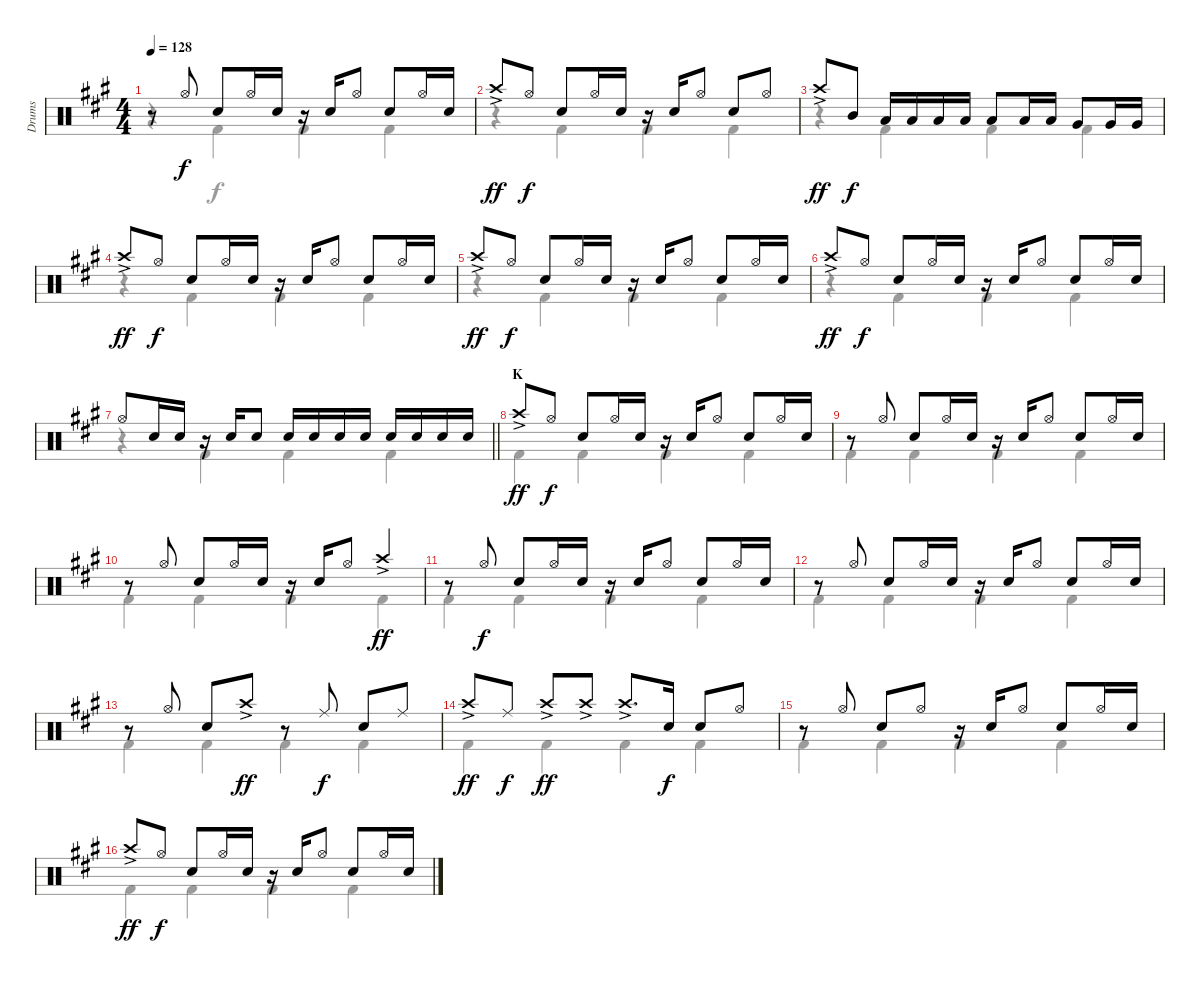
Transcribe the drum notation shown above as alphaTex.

\track ("Drums" "Drums") {instrument percussion}
\staff {score}
\articulation defaults
\voice
\ts (4 4)
\tempo 128
\clef neutral
\ks a
r.8{dy f} "Hi-Hat (open)".8 "Snare (hit) 2".8 "Hi-Hat (open)".16 "Snare (hit) 2".16 r.16 "Snare (hit) 2".16 "Hi-Hat (open)".8 "Snare (hit) 2".8 "Hi-Hat (open)".16 "Snare (hit) 2".16 |
"Crash high (hit)"{ac}.8{dy ff} "Hi-Hat (open)".8{dy f} "Snare (hit) 2".8 "Hi-Hat (open)".16 "Snare (hit) 2".16 r.16 "Snare (hit) 2".16 "Hi-Hat (open)".8 "Snare (hit) 2".8 "Hi-Hat (open)".8 |
"Crash high (hit)"{ac}.8{dy ff} "Mid Tom (hit)".8{dy f} "Low Tom (hit)".16 "Low Tom (hit)".16 "Low Tom (hit)".16 "Low Tom (hit)".16 "Low Tom (hit)".8 "Low Tom (hit)".16 "Low Tom (hit)".16 "Very Low Tom (hit)".8 "Very Low Tom (hit)".16 "Very Low Tom (hit)".16 |
"Crash high (hit)"{ac}.8{dy ff} "Hi-Hat (open)".8{dy f} "Snare (hit) 2".8 "Hi-Hat (open)".16 "Snare (hit) 2".16 r.16 "Snare (hit) 2".16 "Hi-Hat (open)".8 "Snare (hit) 2".8 "Hi-Hat (open)".16 "Snare (hit) 2".16 |
"Crash high (hit)"{ac}.8{dy ff} "Hi-Hat (open)".8{dy f} "Snare (hit) 2".8 "Hi-Hat (open)".16 "Snare (hit) 2".16 r.16 "Snare (hit) 2".16 "Hi-Hat (open)".8 "Snare (hit) 2".8 "Hi-Hat (open)".16 "Snare (hit) 2".16 |
"Crash high (hit)"{ac}.8{dy ff} "Hi-Hat (open)".8{dy f} "Snare (hit) 2".8 "Hi-Hat (open)".16 "Snare (hit) 2".16 r.16 "Snare (hit) 2".16 "Hi-Hat (open)".8 "Snare (hit) 2".8 "Hi-Hat (open)".16 "Snare (hit) 2".16 |
\barLineRight lightlight "Hi-Hat (open)".8 "Snare (hit) 2".16 "Snare (hit) 2".16
r.16 "Snare (hit) 2".16 "Snare (hit) 2".8 "Snare (hit) 2".16 "Snare (hit) 2".16 "Snare (hit) 2".16 "Snare (hit) 2".16 "Snare (hit) 2".16 "Snare (hit) 2".16 "Snare (hit) 2".16 "Snare (hit) 2".16 |
\section ("" "K")
"Crash high (hit)"{ac}.8{dy ff} "Hi-Hat (open)".8{dy f} "Snare (hit) 2".8 "Hi-Hat (open)".16 "Snare (hit) 2".16 r.16 "Snare (hit) 2".16 "Hi-Hat (open)".8 "Snare (hit) 2".8 "Hi-Hat (open)".16 "Snare (hit) 2".16 |
r.8 "Hi-Hat (open)".8 "Snare (hit) 2".8 "Hi-Hat (open)".16 "Snare (hit) 2".16 r.16 "Snare (hit) 2".16 "Hi-Hat (open)".8 "Snare (hit) 2".8 "Hi-Hat (open)".16 "Snare (hit) 2".16 |
r.8 "Hi-Hat (open)".8 "Snare (hit) 2".8 "Hi-Hat (open)".16 "Snare (hit) 2".16 r.16 "Snare (hit) 2".16 "Hi-Hat (open)".8 "Crash high (hit)"{ac}.4{dy ff} |
r.8 "Hi-Hat (open)".8{dy f} "Snare (hit) 2".8 "Hi-Hat (open)".16 "Snare (hit) 2".16 r.16 "Snare (hit) 2".16 "Hi-Hat (open)".8 "Snare (hit) 2".8 "Hi-Hat (open)".16 "Snare (hit) 2".16 |
r.8 "Hi-Hat (open)".8 "Snare (hit) 2".8 "Hi-Hat (open)".16 "Snare (hit) 2".16 r.16 "Snare (hit) 2".16 "Hi-Hat (open)".8 "Snare (hit) 2".8 "Hi-Hat (open)".16 "Snare (hit) 2".16 |
r.8 "Hi-Hat (open)".8 "Snare (hit) 2".8 "Crash high (hit)"{ac}.8{dy ff} r.8 "Ride (middle)".8{dy f} "Snare (hit) 2".8 "Ride (middle)".8 |
"Crash high (hit)"{ac}.8{dy ff} "Ride (middle)".8{dy f} "Crash high (hit)"{ac}.8{dy ff} "Crash high (hit)"{ac}.8 "Crash high (hit)"{ac}.8{d} "Snare (hit) 2".16{dy f} "Snare (hit) 2".8 "Hi-Hat (open)".8 |
r.8 "Hi-Hat (open)".8 "Snare (hit) 2".8 "Hi-Hat (open)".8 r.16 "Snare (hit) 2".16 "Hi-Hat (open)".8 "Snare (hit) 2".8 "Hi-Hat (open)".16 "Snare (hit) 2".16 |
"Crash high (hit)"{ac}.8{dy ff} "Hi-Hat (open)".8{dy f} "Snare (hit) 2".8 "Hi-Hat (open)".16 "Snare (hit) 2".16 r.16 "Snare (hit) 2".16 "Hi-Hat (open)".8 "Snare (hit) 2".8 "Hi-Hat (open)".16 "Snare (hit) 2".16
\voice
\clef neutral
\ottava regular
\simile none
\ks a
r.4{dy f} "Kick (hit) 2".4 "Kick (hit) 2".4 "Kick (hit) 2".4 |
r.4 "Kick (hit) 2".4 "Kick (hit) 2".4 "Kick (hit) 2".4 |
r.4 "Kick (hit) 2".4 "Kick (hit) 2".4 "Kick (hit) 2".4 |
r.4 "Kick (hit) 2".4 "Kick (hit) 2".4 "Kick (hit) 2".4 |
r.4 "Kick (hit) 2".4 "Kick (hit) 2".4 "Kick (hit) 2".4 |
r.4 "Kick (hit) 2".4 "Kick (hit) 2".4 "Kick (hit) 2".4 |
\barLineRight lightlight
r.4 "Kick (hit) 2".4 "Kick (hit) 2".4 "Kick (hit) 2".4 |
"Kick (hit) 2".4 "Kick (hit) 2".4 "Kick (hit) 2".4 "Kick (hit) 2".4 |
"Kick (hit) 2".4 "Kick (hit) 2".4 "Kick (hit) 2".4 "Kick (hit) 2".4 |
"Kick (hit) 2".4 "Kick (hit) 2".4 "Kick (hit) 2".4 "Kick (hit) 2".4 |
"Kick (hit) 2".4 "Kick (hit) 2".4 "Kick (hit) 2".4 "Kick (hit) 2".4 |
"Kick (hit) 2".4 "Kick (hit) 2".4 "Kick (hit) 2".4 "Kick (hit) 2".4 |
"Kick (hit) 2".4 "Kick (hit) 2".4 "Kick (hit) 2".4 "Kick (hit) 2".4 |
"Kick (hit) 2".4 "Kick (hit) 2".4 "Kick (hit) 2".4 "Kick (hit) 2".4 |
"Kick (hit) 2".4 "Kick (hit) 2".4 "Kick (hit) 2".4 "Kick (hit) 2".4 |
"Kick (hit) 2".4 "Kick (hit) 2".4 "Kick (hit) 2".4 "Kick (hit) 2".4
